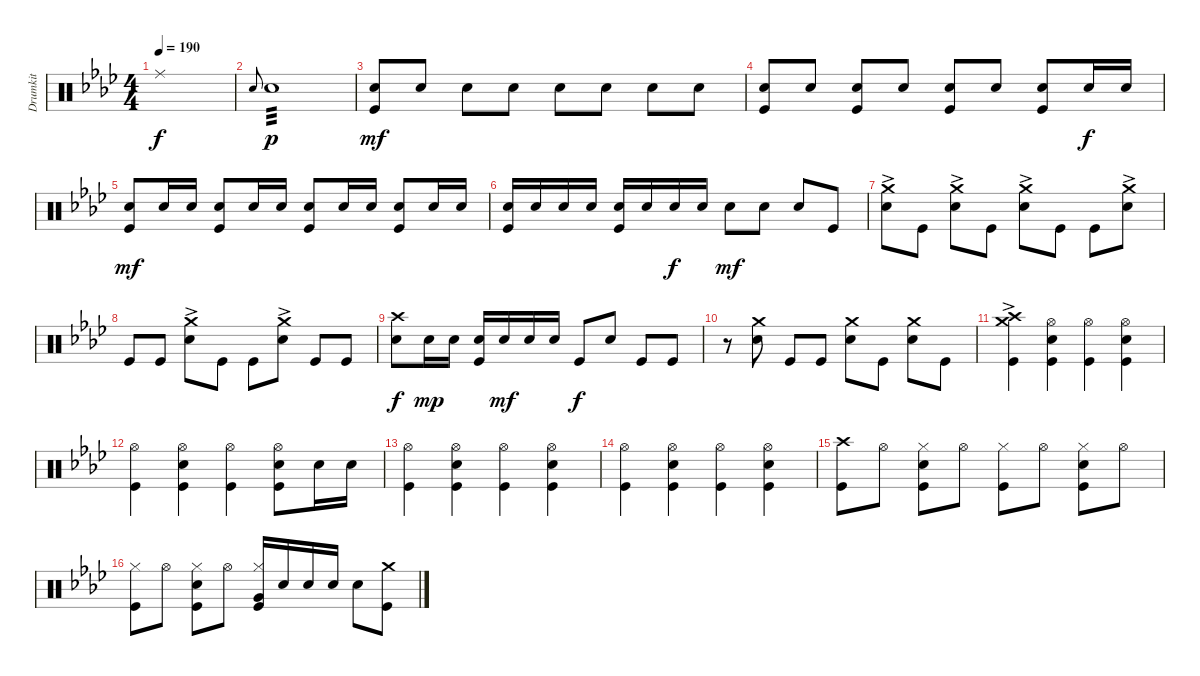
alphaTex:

\track ("Drumkit" "Drumkit") {instrument percussion}
\staff {score}
\articulation defaults
\ts (4 4)
\tempo 190
\clef neutral
\ks ab "Ride (middle)".1{dy f}
|
"Snare (hit)".8{gr onbeat} "Snare (hit) 2".1{tp 3 dy p} |
("Snare (hit) 2" "Kick (hit)").8{dy mf} "Snare (hit) 2".8 "Snare (hit) 2".8 "Snare (hit) 2".8 "Snare (hit) 2".8 "Snare (hit) 2".8 "Snare (hit) 2".8 "Snare (hit) 2".8 |
("Snare (hit) 2" "Kick (hit)").8 "Snare (hit) 2".8 ("Snare (hit) 2" "Kick (hit)").8 "Snare (hit) 2".8 ("Snare (hit) 2" "Kick (hit)").8 "Snare (hit) 2".8 ("Snare (hit) 2" "Kick (hit)").8 "Snare (hit) 2".16{dy f} "Snare (hit) 2".16 |
("Snare (hit) 2" "Kick (hit)").8{dy mf} "Snare (hit) 2".16 "Snare (hit) 2".16 ("Snare (hit) 2" "Kick (hit)").8 "Snare (hit) 2".16 "Snare (hit) 2".16 ("Snare (hit) 2" "Kick (hit)").8 "Snare (hit) 2".16 "Snare (hit) 2".16 ("Snare (hit) 2" "Kick (hit)").8 "Snare (hit) 2".16 "Snare (hit) 2".16 |
("Kick (hit)" "Snare (hit) 2").16 "Snare (hit) 2".16 "Snare (hit) 2".16 "Snare (hit) 2".16 ("Snare (hit) 2" "Kick (hit)").16 "Snare (hit) 2".16 "Snare (hit) 2".16{dy f} "Snare (hit) 2".16 "Snare (hit) 2".8{dy mf} "Snare (hit) 2".8 "Snare (hit) 2".8 "Kick (hit)".8 |
("Snare (hit) 2" "Crash medium (hit)"{ac}).8 "Kick (hit)".8 ("Snare (hit) 2" "Crash medium (hit)"{ac}).8 "Kick (hit)".8 ("Snare (hit) 2" "Crash medium (hit)"{ac}).8 "Kick (hit)".8 "Kick (hit)".8 ("Snare (hit) 2" "Crash medium (hit)"{ac}).8 |
"Kick (hit)".8 "Kick (hit)".8 ("Snare (hit) 2" "Crash medium (hit)"{ac}).8 "Kick (hit)".8 "Kick (hit)".8 ("Snare (hit) 2" "Crash medium (hit)"{ac}).8 "Kick (hit)".8 "Kick (hit)".8 |
("Snare (hit) 2" "Crash high (hit)").8{dy f} "Snare (hit) 2".16{dy mp} "Snare (hit) 2".16 ("Snare (hit) 2" "Kick (hit)").16 "Snare (hit) 2".16{dy mf} "Snare (hit) 2".16 "Snare (hit) 2".16 "Kick (hit)".8{dy f} "Snare (hit) 2".8 "Kick (hit)".8 "Kick (hit)".8 |
r.8 ("Snare (hit) 2" "Crash medium (hit)").8 "Kick (hit)".8 "Kick (hit)".8 ("Snare (hit) 2" "Crash medium (hit)").8 "Kick (hit)".8 ("Snare (hit) 2" "Crash medium (hit)").8 "Kick (hit)".8 |
("Kick (hit)" "Crash high (hit)"{ac} "Crash medium (hit)"{ac}).4 ("Snare (hit) 2" "Hi-Hat (open)" "Kick (hit)").4 ("Kick (hit)" "Hi-Hat (open)").4 ("Snare (hit) 2" "Hi-Hat (open)" "Kick (hit)").4 |
("Kick (hit)" "Hi-Hat (open)").4 ("Snare (hit) 2" "Hi-Hat (open)" "Kick (hit)").4 ("Kick (hit)" "Hi-Hat (open)").4 ("Snare (hit) 2" "Hi-Hat (open)" "Kick (hit)").8 "Snare (hit) 2".16 "Snare (hit) 2".16 |
("Kick (hit)" "Hi-Hat (open)").4 ("Snare (hit) 2" "Hi-Hat (open)" "Kick (hit)").4 ("Kick (hit)" "Hi-Hat (open)").4 ("Snare (hit) 2" "Hi-Hat (open)" "Kick (hit)").4 |
("Kick (hit)" "Hi-Hat (open)").4 ("Snare (hit) 2" "Hi-Hat (open)" "Kick (hit)").4 ("Kick (hit)" "Hi-Hat (open)").4 ("Snare (hit) 2" "Hi-Hat (open)" "Kick (hit)").4 |
("Kick (hit)" "Crash high (hit)").8 "Hi-Hat (open)".8 ("Kick (hit)" "Snare (hit) 2" "Hi-Hat (closed)").8 "Hi-Hat (open)".8 ("Kick (hit)" "Hi-Hat (closed)").8 "Hi-Hat (open)".8 ("Kick (hit)" "Hi-Hat (closed)" "Snare (hit) 2").8 "Hi-Hat (open)".8 |
("Kick (hit)" "Hi-Hat (closed)").8 "Hi-Hat (open)".8 ("Kick (hit)" "Snare (hit) 2" "Hi-Hat (closed)").8 "Hi-Hat (open)".8 ("Hi-Hat (closed)" "Very Low Tom (hit)" "Kick (hit)").16 "Snare (hit) 2".16 "Snare (hit) 2".16 "Snare (hit) 2".16 "Snare (hit) 2".8 ("Kick (hit)" "Crash medium (hit)").8
